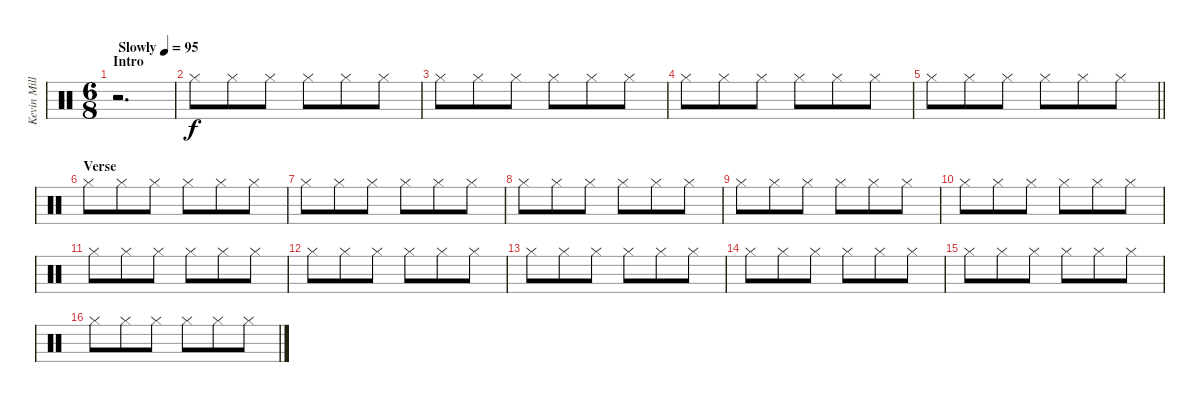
\track ("Kevin Miller (Drums)" "Kevin Mill") {instrument percussion}
\staff {score}
\articulation defaults
\ts (6 8)
\section ("" "Intro")
\tempo (95 "Slowly")
\clef neutral
\ks c
r.2{d dy f} |
"Hi-Hat (closed)".8 "Hi-Hat (closed)".8 "Hi-Hat (closed)".8 "Hi-Hat (closed)".8 "Hi-Hat (closed)".8 "Hi-Hat (closed)".8 |
"Hi-Hat (closed)".8 "Hi-Hat (closed)".8 "Hi-Hat (closed)".8 "Hi-Hat (closed)".8 "Hi-Hat (closed)".8 "Hi-Hat (closed)".8 |
"Hi-Hat (closed)".8 "Hi-Hat (closed)".8 "Hi-Hat (closed)".8 "Hi-Hat (closed)".8 "Hi-Hat (closed)".8 "Hi-Hat (closed)".8 |
\barLineRight lightlight "Hi-Hat (closed)".8 "Hi-Hat (closed)".8 "Hi-Hat (closed)".8 "Hi-Hat (closed)".8 "Hi-Hat (closed)".8 "Hi-Hat (closed)".8
|
\section ("" "Verse")
"Hi-Hat (closed)".8 "Hi-Hat (closed)".8 "Hi-Hat (closed)".8 "Hi-Hat (closed)".8 "Hi-Hat (closed)".8 "Hi-Hat (closed)".8 |
"Hi-Hat (closed)".8 "Hi-Hat (closed)".8 "Hi-Hat (closed)".8 "Hi-Hat (closed)".8 "Hi-Hat (closed)".8 "Hi-Hat (closed)".8 |
"Hi-Hat (closed)".8 "Hi-Hat (closed)".8 "Hi-Hat (closed)".8 "Hi-Hat (closed)".8 "Hi-Hat (closed)".8 "Hi-Hat (closed)".8 |
"Hi-Hat (closed)".8 "Hi-Hat (closed)".8 "Hi-Hat (closed)".8 "Hi-Hat (closed)".8 "Hi-Hat (closed)".8 "Hi-Hat (closed)".8 |
"Hi-Hat (closed)".8 "Hi-Hat (closed)".8 "Hi-Hat (closed)".8 "Hi-Hat (closed)".8 "Hi-Hat (closed)".8 "Hi-Hat (closed)".8 |
"Hi-Hat (closed)".8 "Hi-Hat (closed)".8 "Hi-Hat (closed)".8 "Hi-Hat (closed)".8 "Hi-Hat (closed)".8 "Hi-Hat (closed)".8 |
"Hi-Hat (closed)".8 "Hi-Hat (closed)".8 "Hi-Hat (closed)".8 "Hi-Hat (closed)".8 "Hi-Hat (closed)".8 "Hi-Hat (closed)".8 |
"Hi-Hat (closed)".8 "Hi-Hat (closed)".8 "Hi-Hat (closed)".8 "Hi-Hat (closed)".8 "Hi-Hat (closed)".8 "Hi-Hat (closed)".8 |
"Hi-Hat (closed)".8 "Hi-Hat (closed)".8 "Hi-Hat (closed)".8 "Hi-Hat (closed)".8 "Hi-Hat (closed)".8 "Hi-Hat (closed)".8 |
"Hi-Hat (closed)".8 "Hi-Hat (closed)".8 "Hi-Hat (closed)".8 "Hi-Hat (closed)".8 "Hi-Hat (closed)".8 "Hi-Hat (closed)".8 |
"Hi-Hat (closed)".8 "Hi-Hat (closed)".8 "Hi-Hat (closed)".8 "Hi-Hat (closed)".8 "Hi-Hat (closed)".8 "Hi-Hat (closed)".8
